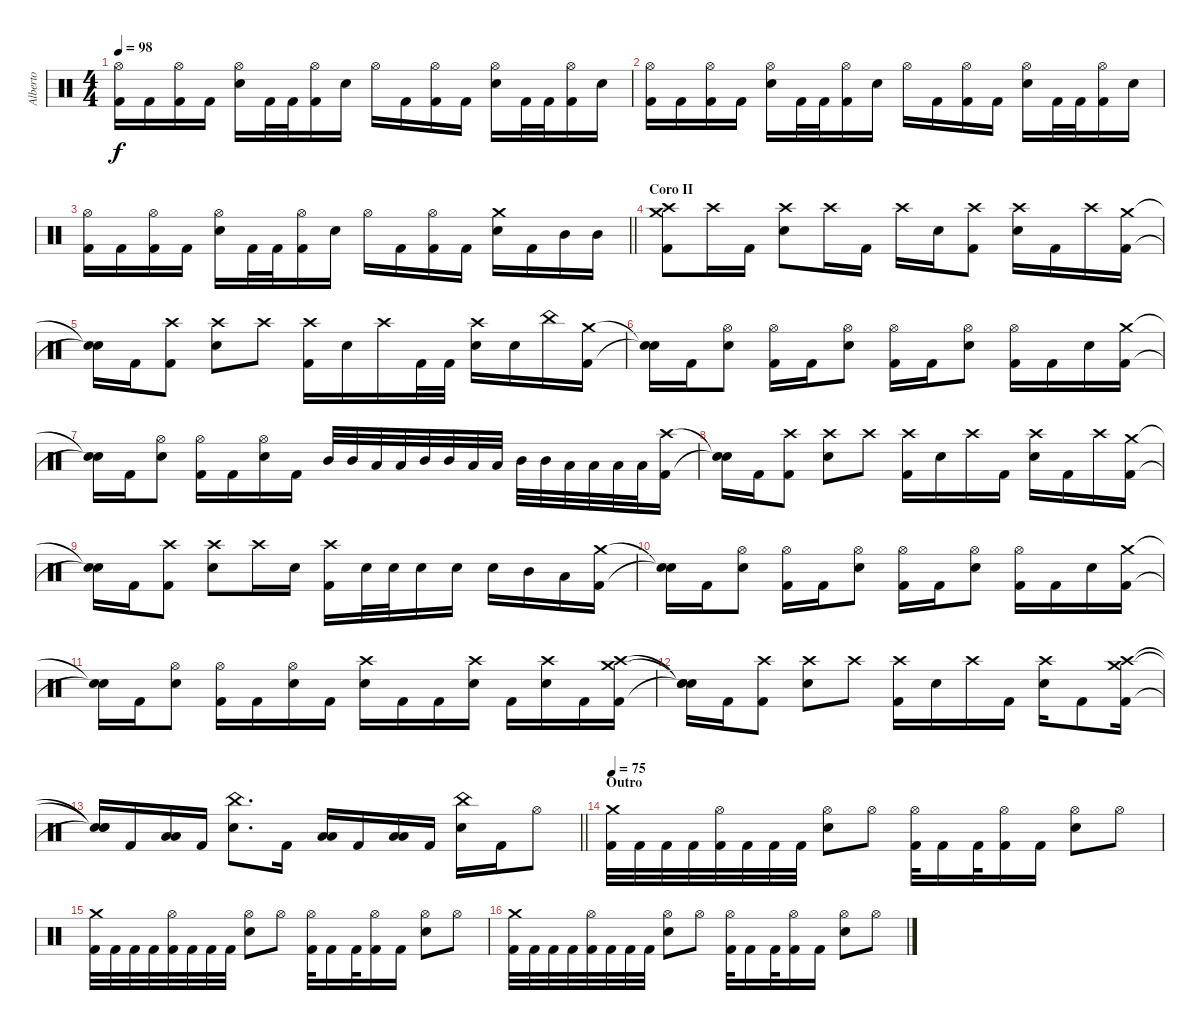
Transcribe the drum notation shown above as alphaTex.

\track ("Alberto" "Alberto") {instrument percussion}
\staff
\articulation defaults
\ts (4 4)
\tempo 98
\clef neutral
\ks c
("Hi-Hat (open)" "Kick (hit) 2").16{dy f} "Kick (hit) 2".16 ("Hi-Hat (open)" "Kick (hit) 2").16 "Kick (hit) 2".16 ("Hi-Hat (open)" "Electric Snare (hit)").16 "Kick (hit) 2".32 "Kick (hit) 2".32 ("Hi-Hat (open)" "Kick (hit) 2").16 "Electric Snare (hit)".16 "Hi-Hat (open)".16 "Kick (hit) 2".16 ("Hi-Hat (open)" "Kick (hit) 2").16 "Kick (hit) 2".16 ("Hi-Hat (open)" "Electric Snare (hit)").16 "Kick (hit) 2".32 "Kick (hit) 2".32 ("Hi-Hat (open)" "Kick (hit) 2").16 "Electric Snare (hit)".16 |
("Hi-Hat (open)" "Kick (hit) 2").16 "Kick (hit) 2".16 ("Hi-Hat (open)" "Kick (hit) 2").16 "Kick (hit) 2".16 ("Hi-Hat (open)" "Electric Snare (hit)").16 "Kick (hit) 2".32 "Kick (hit) 2".32 ("Hi-Hat (open)" "Kick (hit) 2").16 "Electric Snare (hit)".16 "Hi-Hat (open)".16 "Kick (hit) 2".16 ("Hi-Hat (open)" "Kick (hit) 2").16 "Kick (hit) 2".16 ("Hi-Hat (open)" "Electric Snare (hit)").16 "Kick (hit) 2".32 "Kick (hit) 2".32 ("Hi-Hat (open)" "Kick (hit) 2").16 "Electric Snare (hit)".16 |
\barLineRight lightlight
("Hi-Hat (open)" "Kick (hit) 2").16 "Kick (hit) 2".16 ("Hi-Hat (open)" "Kick (hit) 2").16 "Kick (hit) 2".16 ("Hi-Hat (open)" "Electric Snare (hit)").16 "Kick (hit) 2".32 "Kick (hit) 2".32 ("Hi-Hat (open)" "Kick (hit) 2").16 "Electric Snare (hit)".16 "Hi-Hat (open)".16 "Kick (hit) 2".16 ("Hi-Hat (open)" "Kick (hit) 2").16 "Kick (hit) 2".16 ("Crash medium (hit)" "Electric Snare (hit)").16 "Kick (hit) 2".16 "Mid Tom (hit)".16 "Mid Tom (hit)".16 |
\section ("" "Coro II")
("Crash medium (hit)" "Crash high (hit)" "Kick (hit) 2").8 "Crash high (hit)".16 "Kick (hit) 2".16 ("Crash high (hit)" "Electric Snare (hit)").8 "Crash high (hit)".16 "Kick (hit) 2".16 "Crash high (hit)".16 "Electric Snare (hit)".16 ("Crash high (hit)" "Kick (hit) 2").8 ("Crash high (hit)" "Electric Snare (hit)").16 "Kick (hit) 2".16 "Crash high (hit)".16 ("Crash medium (hit)" "Kick (hit) 2").16 |
("Snare (hit)"{t} "Snare (hit)"{t}).16 "Kick (hit) 2".16 ("Crash high (hit)" "Kick (hit) 2").8 ("Crash high (hit)" "Electric Snare (hit)").8 "Crash high (hit)".8 ("Crash high (hit)" "Kick (hit) 2").16 "Electric Snare (hit)".16 "Crash high (hit)".16 "Kick (hit) 2".32 "Kick (hit) 2".32 ("Crash high (hit)" "Electric Snare (hit)").16 "Electric Snare (hit)".16 "China (hit)".16 ("Crash medium (hit)" "Kick (hit) 2").16 |
("Snare (hit)"{t} "Snare (hit)"{t}).16 "Kick (hit) 2".16 ("Hi-Hat (open)" "Electric Snare (hit)").8 ("Hi-Hat (open)" "Kick (hit) 2").16 "Kick (hit) 2".16 ("Hi-Hat (open)" "Electric Snare (hit)").8 ("Hi-Hat (open)" "Kick (hit) 2").16 "Kick (hit) 2".16 ("Hi-Hat (open)" "Electric Snare (hit)").8 ("Hi-Hat (open)" "Kick (hit) 2").16 "Kick (hit) 2".16 "Electric Snare (hit)".16 ("Crash medium (hit)" "Kick (hit) 2").16 |
("Snare (hit)"{t} "Snare (hit)"{t}).16 "Kick (hit) 2".16 ("Hi-Hat (open)" "Electric Snare (hit)").8 ("Hi-Hat (open)" "Kick (hit) 2").16 "Kick (hit) 2".16 ("Hi-Hat (open)" "Electric Snare (hit)").16 "Kick (hit) 2".16 "Mid Tom (hit)".32 "Mid Tom (hit)".32 "Low Tom (hit)".32 "Low Tom (hit)".32 "Mid Tom (hit)".32 "Mid Tom (hit)".32 "Low Tom (hit)".32 "Low Tom (hit)".32 "Mid Tom (hit)".32 "Mid Tom (hit)".32 "Low Tom (hit)".32 "Low Tom (hit)".32 "Low Floor Tom (hit)".32 "Low Floor Tom (hit)".32 ("Crash high (hit)" "Kick (hit) 2").16 |
("Snare (hit)"{t} "Snare (hit)"{t}).16 "Kick (hit) 2".16 ("Crash high (hit)" "Kick (hit) 2").8 ("Crash high (hit)" "Electric Snare (hit)").8 "Crash high (hit)".8 ("Crash high (hit)" "Kick (hit) 2").16 "Electric Snare (hit)".16 "Crash high (hit)".16 "Kick (hit) 2".16 ("Crash high (hit)" "Electric Snare (hit)").16 "Kick (hit) 2".16 "Crash high (hit)".16 ("Crash medium (hit)" "Kick (hit) 2").16 |
("Snare (hit)"{t} "Snare (hit)"{t}).16 "Kick (hit) 2".16 ("Crash high (hit)" "Kick (hit) 2").8 ("Crash high (hit)" "Electric Snare (hit)").8 "Crash high (hit)".16 "Electric Snare (hit)".16 ("Crash high (hit)" "Kick (hit) 2").16 "Electric Snare (hit)".32 "Electric Snare (hit)".32 "Electric Snare (hit)".16 "Electric Snare (hit)".16 "Electric Snare (hit)".16 "Mid Tom (hit)".16 "Low Tom (hit)".16 ("Crash medium (hit)" "Kick (hit) 2").16 |
("Snare (hit)"{t} "Snare (hit)"{t}).16 "Kick (hit) 2".16 ("Hi-Hat (open)" "Electric Snare (hit)").8 ("Hi-Hat (open)" "Kick (hit) 2").16 "Kick (hit) 2".16 ("Hi-Hat (open)" "Electric Snare (hit)").8 ("Hi-Hat (open)" "Kick (hit) 2").16 "Kick (hit) 2".16 ("Hi-Hat (open)" "Electric Snare (hit)").8 ("Hi-Hat (open)" "Kick (hit) 2").16 "Kick (hit) 2".16 "Electric Snare (hit)".16 ("Crash medium (hit)" "Kick (hit) 2").16 |
("Snare (hit)"{t} "Snare (hit)"{t}).16 "Kick (hit) 2".16 ("Hi-Hat (open)" "Electric Snare (hit)").8 ("Hi-Hat (open)" "Kick (hit) 2").16 "Kick (hit) 2".16 ("Hi-Hat (open)" "Electric Snare (hit)").16 "Kick (hit) 2".16 ("Crash high (hit)" "Electric Snare (hit)").16 "Kick (hit) 2".16 "Kick (hit) 2".16 ("Crash high (hit)" "Electric Snare (hit)").16 "Kick (hit) 2".16 ("Crash high (hit)" "Electric Snare (hit)").16 "Kick (hit) 2".16 ("Crash medium (hit)" "Crash high (hit)" "Kick (hit) 2").16 |
("Snare (hit)"{t} "Snare (hit)"{t} "Snare (hit)"{t}).16 "Kick (hit) 2".16 ("Crash high (hit)" "Kick (hit) 2").8 ("Crash high (hit)" "Electric Snare (hit)").8 "Crash high (hit)".8 ("Crash high (hit)" "Kick (hit) 2").16 "Electric Snare (hit)".16 "Crash high (hit)".16 "Kick (hit) 2".16 ("Crash high (hit)" "Electric Snare (hit)").16 "Kick (hit) 2".8 ("Crash medium (hit)" "Crash high (hit)" "Kick (hit) 2").16 |
\barLineRight lightlight
("Snare (hit)"{t} "Snare (hit)"{t} "Snare (hit)"{t}).16 "Kick (hit) 2".16 ("Low Tom (hit)" "Low Floor Tom (hit)").16 "Kick (hit) 2".16 ("China (hit)" "Electric Snare (hit)").8{d} "Kick (hit) 2".16 ("Low Tom (hit)" "Low Floor Tom (hit)").16 "Kick (hit) 2".16 ("Low Tom (hit)" "Low Floor Tom (hit)").16 "Kick (hit) 2".16 ("China (hit)" "Electric Snare (hit)").16 "Kick (hit) 2".16 "Hi-Hat (open)".8 |
\section ("" "Outro")
\tempo 75
("Crash medium (hit)" "Kick (hit) 2").32 "Kick (hit) 2".32 "Kick (hit) 2".32 "Kick (hit) 2".32 ("Hi-Hat (open)" "Kick (hit) 2").32 "Kick (hit) 2".32 "Kick (hit) 2".32 "Kick (hit) 2".32 ("Hi-Hat (open)" "Electric Snare (hit)").8 "Hi-Hat (open)".8 ("Hi-Hat (open)" "Kick (hit) 2").32 "Kick (hit) 2".16 "Kick (hit) 2".32 ("Hi-Hat (open)" "Kick (hit) 2").16 "Kick (hit) 2".16 ("Hi-Hat (open)" "Electric Snare (hit)").8 "Hi-Hat (open)".8 |
("Crash medium (hit)" "Kick (hit) 2").32 "Kick (hit) 2".32 "Kick (hit) 2".32 "Kick (hit) 2".32 ("Hi-Hat (open)" "Kick (hit) 2").32 "Kick (hit) 2".32 "Kick (hit) 2".32 "Kick (hit) 2".32 ("Hi-Hat (open)" "Electric Snare (hit)").8 "Hi-Hat (open)".8 ("Hi-Hat (open)" "Kick (hit) 2").32 "Kick (hit) 2".16 "Kick (hit) 2".32 ("Hi-Hat (open)" "Kick (hit) 2").16 "Kick (hit) 2".16 ("Hi-Hat (open)" "Electric Snare (hit)").8 "Hi-Hat (open)".8 |
("Crash medium (hit)" "Kick (hit) 2").32 "Kick (hit) 2".32 "Kick (hit) 2".32 "Kick (hit) 2".32 ("Hi-Hat (open)" "Kick (hit) 2").32 "Kick (hit) 2".32 "Kick (hit) 2".32 "Kick (hit) 2".32 ("Hi-Hat (open)" "Electric Snare (hit)").8 "Hi-Hat (open)".8 ("Hi-Hat (open)" "Kick (hit) 2").32 "Kick (hit) 2".16 "Kick (hit) 2".32 ("Hi-Hat (open)" "Kick (hit) 2").16 "Kick (hit) 2".16 ("Hi-Hat (open)" "Electric Snare (hit)").8 "Hi-Hat (open)".8
